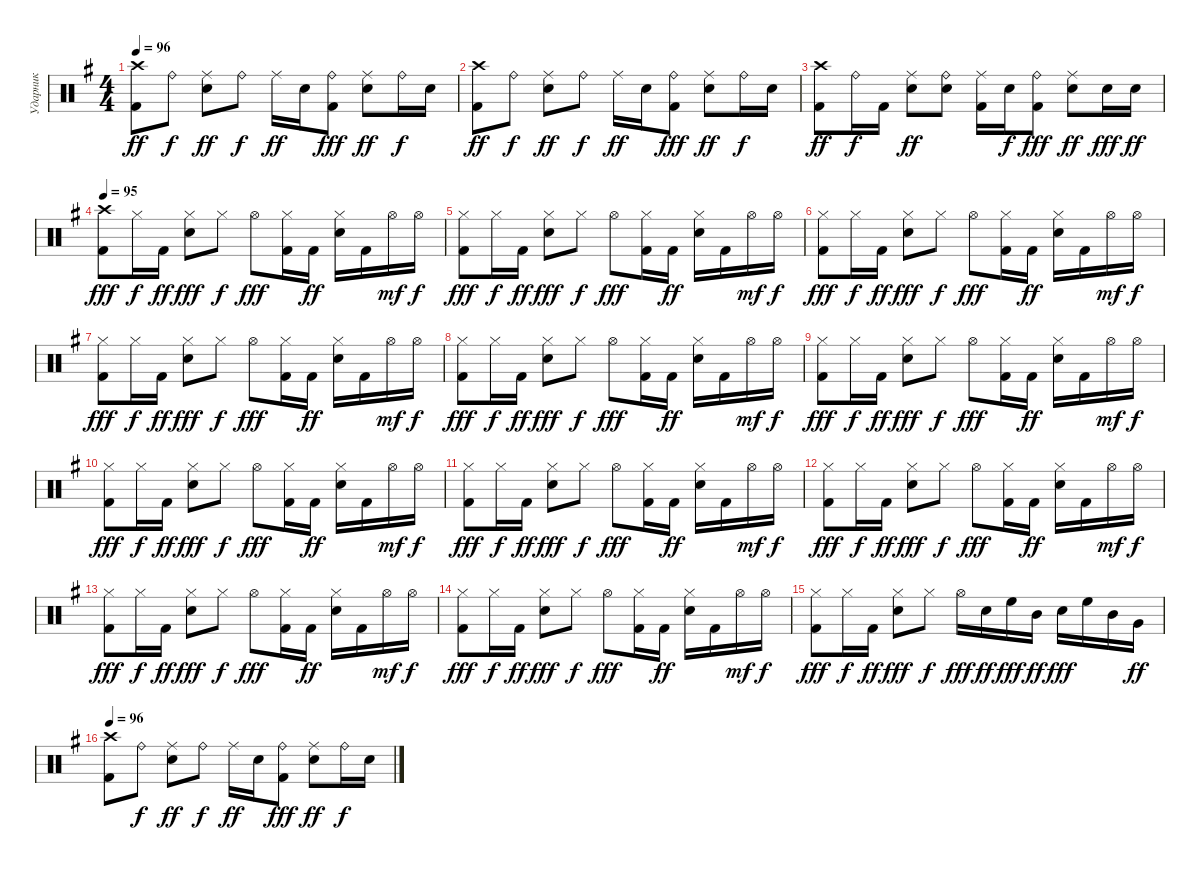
\track ("Ударник" "Ударник") {instrument percussion}
\staff {score}
\articulation defaults
\ts (4 4)
\tempo 96
\clef neutral
\ks eminor
("Kick (hit) 2" "Crash high (hit)").8{dy ff} "Ride (bell)".8{dy f} ("Snare (hit) 2" "Ride (middle)").8{dy ff} "Ride (bell)".8{dy f} "Ride (middle)".16{dy ff} "Snare (hit) 2".16 ("Kick (hit) 2" "Ride (bell)").8{dy fff} ("Snare (hit) 2" "Ride (middle)").8{dy ff} "Ride (bell)".16{dy f} "Snare (hit) 2".16 |
("Kick (hit) 2" "Crash high (hit)").8{dy ff} "Ride (bell)".8{dy f} ("Snare (hit) 2" "Ride (middle)").8{dy ff} "Ride (bell)".8{dy f} "Ride (middle)".16{dy ff} "Snare (hit) 2".16 ("Kick (hit) 2" "Ride (bell)").8{dy fff} ("Snare (hit) 2" "Ride (middle)").8{dy ff} "Ride (bell)".16{dy f} "Snare (hit) 2".16 |
("Kick (hit) 2" "Crash high (hit)").8{dy ff} "Ride (bell)".16{dy f} "Kick (hit) 2".16 ("Snare (hit) 2" "Ride (middle)").8{dy ff} ("Snare (hit) 2" "Ride (bell)").8 ("Kick (hit) 2" "Ride (middle)").16 "Snare (hit) 2".16{dy f} ("Kick (hit) 2" "Ride (bell)").8{dy fff} ("Snare (hit) 2" "Ride (middle)").8{dy ff} "Snare (hit) 2".16{dy fff} "Snare (hit) 2".16{dy ff} |
\tempo 95
("Kick (hit) 2" "Crash high (hit)").8{dy fff} "Hi-Hat (closed)".16{dy f} "Kick (hit) 2".16{dy ff} ("Snare (hit) 2" "Hi-Hat (closed)").8{dy fff} "Hi-Hat (closed)".8{dy f} "Hi-Hat (open)".8{dy fff} ("Kick (hit) 2" "Hi-Hat (closed)").16 "Kick (hit) 2".16{dy ff} ("Snare (hit) 2" "Hi-Hat (closed)").16 "Kick (hit) 2".16 "Hi-Hat (open)".16{dy mf} "Hi-Hat (open)".16{dy f} |
("Kick (hit) 2" "Hi-Hat (closed)").8{dy fff} "Hi-Hat (closed)".16{dy f} "Kick (hit) 2".16{dy ff} ("Snare (hit) 2" "Hi-Hat (closed)").8{dy fff} "Hi-Hat (closed)".8{dy f} "Hi-Hat (open)".8{dy fff} ("Kick (hit) 2" "Hi-Hat (closed)").16 "Kick (hit) 2".16{dy ff} ("Snare (hit) 2" "Hi-Hat (closed)").16 "Kick (hit) 2".16 "Hi-Hat (open)".16{dy mf} "Hi-Hat (open)".16{dy f} |
("Kick (hit) 2" "Hi-Hat (closed)").8{dy fff} "Hi-Hat (closed)".16{dy f} "Kick (hit) 2".16{dy ff} ("Snare (hit) 2" "Hi-Hat (closed)").8{dy fff} "Hi-Hat (closed)".8{dy f} "Hi-Hat (open)".8{dy fff} ("Kick (hit) 2" "Hi-Hat (closed)").16 "Kick (hit) 2".16{dy ff} ("Snare (hit) 2" "Hi-Hat (closed)").16 "Kick (hit) 2".16 "Hi-Hat (open)".16{dy mf} "Hi-Hat (open)".16{dy f} |
("Kick (hit) 2" "Hi-Hat (closed)").8{dy fff} "Hi-Hat (closed)".16{dy f} "Kick (hit) 2".16{dy ff} ("Snare (hit) 2" "Hi-Hat (closed)").8{dy fff} "Hi-Hat (closed)".8{dy f} "Hi-Hat (open)".8{dy fff} ("Kick (hit) 2" "Hi-Hat (closed)").16 "Kick (hit) 2".16{dy ff} ("Snare (hit) 2" "Hi-Hat (closed)").16 "Kick (hit) 2".16 "Hi-Hat (open)".16{dy mf} "Hi-Hat (open)".16{dy f} |
("Kick (hit) 2" "Hi-Hat (closed)").8{dy fff} "Hi-Hat (closed)".16{dy f} "Kick (hit) 2".16{dy ff} ("Snare (hit) 2" "Hi-Hat (closed)").8{dy fff} "Hi-Hat (closed)".8{dy f} "Hi-Hat (open)".8{dy fff} ("Kick (hit) 2" "Hi-Hat (closed)").16 "Kick (hit) 2".16{dy ff} ("Snare (hit) 2" "Hi-Hat (closed)").16 "Kick (hit) 2".16 "Hi-Hat (open)".16{dy mf} "Hi-Hat (open)".16{dy f} |
("Kick (hit) 2" "Hi-Hat (closed)").8{dy fff} "Hi-Hat (closed)".16{dy f} "Kick (hit) 2".16{dy ff} ("Snare (hit) 2" "Hi-Hat (closed)").8{dy fff} "Hi-Hat (closed)".8{dy f} "Hi-Hat (open)".8{dy fff} ("Kick (hit) 2" "Hi-Hat (closed)").16 "Kick (hit) 2".16{dy ff} ("Snare (hit) 2" "Hi-Hat (closed)").16 "Kick (hit) 2".16 "Hi-Hat (open)".16{dy mf} "Hi-Hat (open)".16{dy f} |
("Kick (hit) 2" "Hi-Hat (closed)").8{dy fff} "Hi-Hat (closed)".16{dy f} "Kick (hit) 2".16{dy ff} ("Snare (hit) 2" "Hi-Hat (closed)").8{dy fff} "Hi-Hat (closed)".8{dy f} "Hi-Hat (open)".8{dy fff} ("Kick (hit) 2" "Hi-Hat (closed)").16 "Kick (hit) 2".16{dy ff} ("Snare (hit) 2" "Hi-Hat (closed)").16 "Kick (hit) 2".16 "Hi-Hat (open)".16{dy mf} "Hi-Hat (open)".16{dy f} |
("Kick (hit) 2" "Hi-Hat (closed)").8{dy fff} "Hi-Hat (closed)".16{dy f} "Kick (hit) 2".16{dy ff} ("Snare (hit) 2" "Hi-Hat (closed)").8{dy fff} "Hi-Hat (closed)".8{dy f} "Hi-Hat (open)".8{dy fff} ("Kick (hit) 2" "Hi-Hat (closed)").16 "Kick (hit) 2".16{dy ff} ("Snare (hit) 2" "Hi-Hat (closed)").16 "Kick (hit) 2".16 "Hi-Hat (open)".16{dy mf} "Hi-Hat (open)".16{dy f} |
("Kick (hit) 2" "Hi-Hat (closed)").8{dy fff} "Hi-Hat (closed)".16{dy f} "Kick (hit) 2".16{dy ff} ("Snare (hit) 2" "Hi-Hat (closed)").8{dy fff} "Hi-Hat (closed)".8{dy f} "Hi-Hat (open)".8{dy fff} ("Kick (hit) 2" "Hi-Hat (closed)").16 "Kick (hit) 2".16{dy ff} ("Snare (hit) 2" "Hi-Hat (closed)").16 "Kick (hit) 2".16 "Hi-Hat (open)".16{dy mf} "Hi-Hat (open)".16{dy f} |
("Kick (hit) 2" "Hi-Hat (closed)").8{dy fff} "Hi-Hat (closed)".16{dy f} "Kick (hit) 2".16{dy ff} ("Snare (hit) 2" "Hi-Hat (closed)").8{dy fff} "Hi-Hat (closed)".8{dy f} "Hi-Hat (open)".8{dy fff} ("Kick (hit) 2" "Hi-Hat (closed)").16 "Kick (hit) 2".16{dy ff} ("Snare (hit) 2" "Hi-Hat (closed)").16 "Kick (hit) 2".16 "Hi-Hat (open)".16{dy mf} "Hi-Hat (open)".16{dy f} |
("Kick (hit) 2" "Hi-Hat (closed)").8{dy fff} "Hi-Hat (closed)".16{dy f} "Kick (hit) 2".16{dy ff} ("Snare (hit) 2" "Hi-Hat (closed)").8{dy fff} "Hi-Hat (closed)".8{dy f} "Hi-Hat (open)".8{dy fff} ("Kick (hit) 2" "Hi-Hat (closed)").16 "Kick (hit) 2".16{dy ff} ("Snare (hit) 2" "Hi-Hat (closed)").16 "Kick (hit) 2".16 "Hi-Hat (open)".16{dy mf} "Hi-Hat (open)".16{dy f} |
("Kick (hit) 2" "Hi-Hat (closed)").8{dy fff} "Hi-Hat (closed)".16{dy f} "Kick (hit) 2".16{dy ff} ("Snare (hit) 2" "Hi-Hat (closed)").8{dy fff} "Hi-Hat (closed)".8{dy f} "Hi-Hat (open)".16{dy fff} "Snare (hit) 2".16{dy ff} "High Floor Tom (hit)".16{dy fff} "Mid Tom (hit)".16{dy ff} "Snare (hit) 2".16{dy fff} "High Floor Tom (hit)".16 "Mid Tom (hit)".16 "Very Low Tom (hit)".16{dy ff} |
\tempo 96
("Kick (hit) 2" "Crash high (hit)").8 "Ride (bell)".8{dy f} ("Snare (hit) 2" "Ride (middle)").8{dy ff} "Ride (bell)".8{dy f} "Ride (middle)".16{dy ff} "Snare (hit) 2".16 ("Kick (hit) 2" "Ride (bell)").8{dy fff} ("Snare (hit) 2" "Ride (middle)").8{dy ff} "Ride (bell)".16{dy f} "Snare (hit) 2".16
